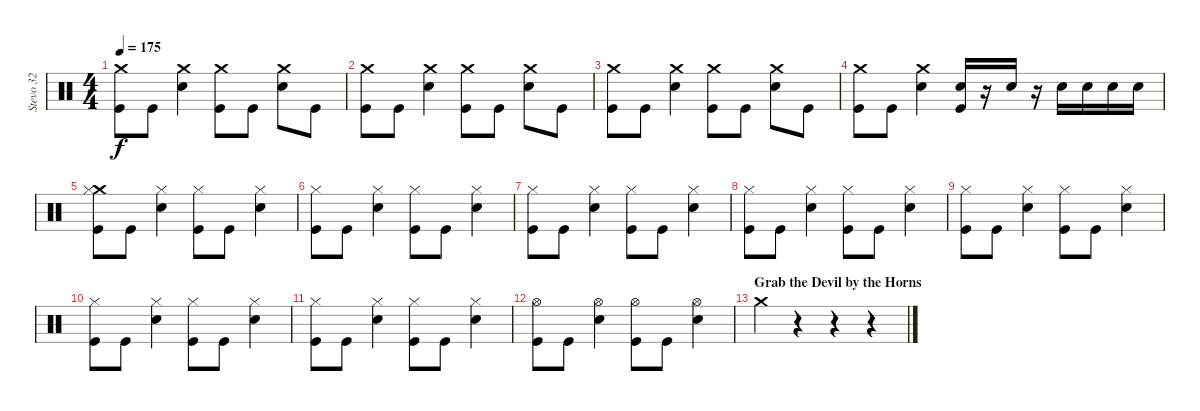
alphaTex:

\track ("Stevo 32" "Stevo 32") {instrument percussion}
\staff {score}
\articulation defaults
\ts (4 4)
\tempo 175
\clef neutral
\ks c
("Crash medium (hit)" "Kick (hit)").8{dy f} "Kick (hit)".8 ("Crash medium (hit)" "Snare (hit) 2").4 ("Crash medium (hit)" "Kick (hit)").8 "Kick (hit)".8 ("Crash medium (hit)" "Snare (hit) 2").8 "Kick (hit)".8 |
("Crash medium (hit)" "Kick (hit)").8 "Kick (hit)".8 ("Crash medium (hit)" "Snare (hit) 2").4 ("Crash medium (hit)" "Kick (hit)").8 "Kick (hit)".8 ("Crash medium (hit)" "Snare (hit) 2").8 "Kick (hit)".8 |
("Crash medium (hit)" "Kick (hit)").8 "Kick (hit)".8 ("Crash medium (hit)" "Snare (hit) 2").4 ("Crash medium (hit)" "Kick (hit)").8 "Kick (hit)".8 ("Crash medium (hit)" "Snare (hit) 2").8 "Kick (hit)".8 |
("Crash medium (hit)" "Kick (hit)").8 "Kick (hit)".8 ("Crash medium (hit)" "Snare (hit) 2").4 ("Snare (hit) 2" "Kick (hit)").16 r.16 "Snare (hit) 2".16 r.16 "Snare (hit) 2".16 "Snare (hit) 2".16 "Snare (hit) 2".16 "Snare (hit) 2".16 |
("Crash medium (hit)" "Hi-Hat (closed)" "Kick (hit)").8 "Kick (hit)".8 ("Hi-Hat (closed)" "Snare (hit) 2").4 ("Hi-Hat (closed)" "Kick (hit)").8 "Kick (hit)".8 ("Hi-Hat (closed)" "Snare (hit) 2").4 |
("Hi-Hat (closed)" "Kick (hit)").8 "Kick (hit)".8 ("Hi-Hat (closed)" "Snare (hit) 2").4 ("Hi-Hat (closed)" "Kick (hit)").8 "Kick (hit)".8 ("Hi-Hat (closed)" "Snare (hit) 2").4 |
("Hi-Hat (closed)" "Kick (hit)").8 "Kick (hit)".8 ("Hi-Hat (closed)" "Snare (hit) 2").4 ("Hi-Hat (closed)" "Kick (hit)").8 "Kick (hit)".8 ("Hi-Hat (closed)" "Snare (hit) 2").4 |
("Hi-Hat (closed)" "Kick (hit)").8 "Kick (hit)".8 ("Hi-Hat (closed)" "Snare (hit) 2").4 ("Hi-Hat (closed)" "Kick (hit)").8 "Kick (hit)".8 ("Hi-Hat (closed)" "Snare (hit) 2").4 |
("Hi-Hat (closed)" "Kick (hit)").8 "Kick (hit)".8 ("Hi-Hat (closed)" "Snare (hit) 2").4 ("Hi-Hat (closed)" "Kick (hit)").8 "Kick (hit)".8 ("Hi-Hat (closed)" "Snare (hit) 2").4 |
("Hi-Hat (closed)" "Kick (hit)").8 "Kick (hit)".8 ("Hi-Hat (closed)" "Snare (hit) 2").4 ("Hi-Hat (closed)" "Kick (hit)").8 "Kick (hit)".8 ("Hi-Hat (closed)" "Snare (hit) 2").4 |
("Hi-Hat (closed)" "Kick (hit)").8 "Kick (hit)".8 ("Hi-Hat (closed)" "Snare (hit) 2").4 ("Hi-Hat (closed)" "Kick (hit)").8 "Kick (hit)".8 ("Hi-Hat (closed)" "Snare (hit) 2").4 |
("Hi-Hat (open)" "Kick (hit)").8 "Kick (hit)".8 ("Hi-Hat (open)" "Snare (hit) 2").4 ("Hi-Hat (open)" "Kick (hit)").8 "Kick (hit)".8 ("Hi-Hat (open)" "Snare (hit) 2").4 |
\section ("" "Grab the Devil by the Horns")
"Crash medium (hit)".4 r.4 r.4 r.4
